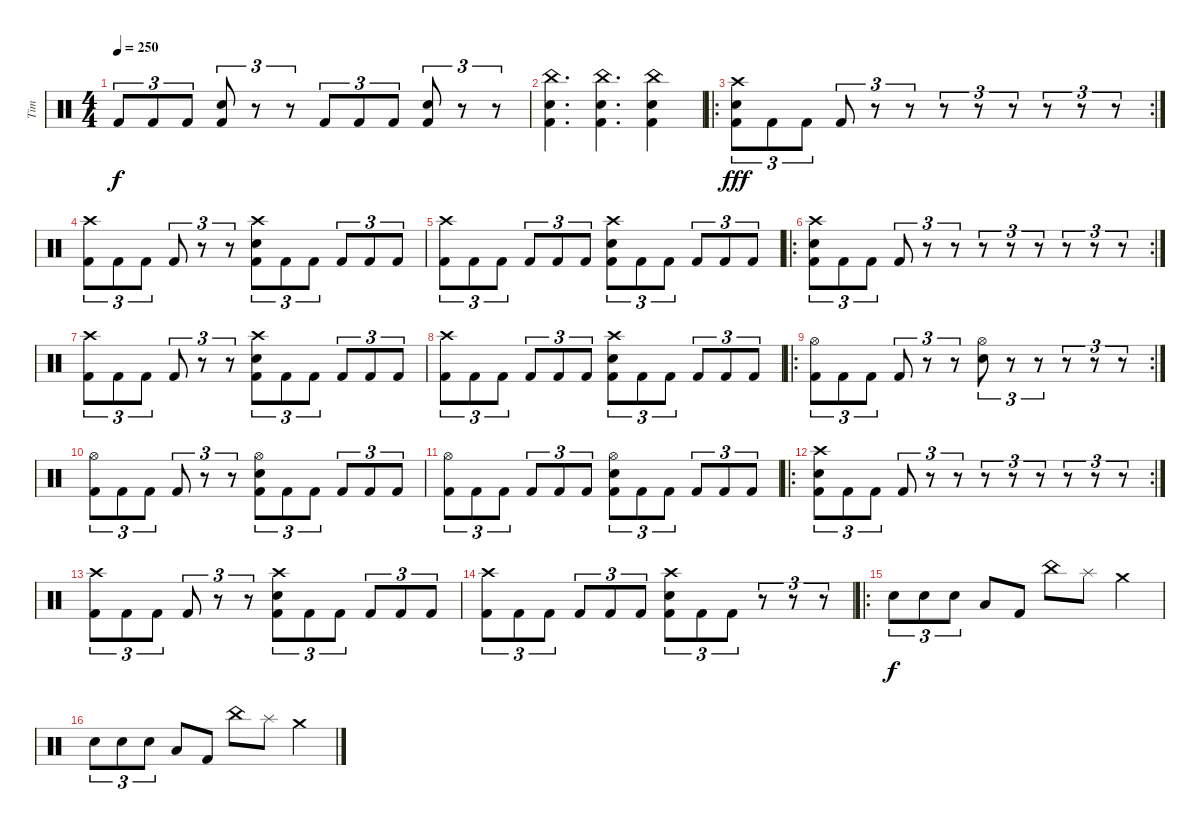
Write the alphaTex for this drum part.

\track ("Tim" "Tim") {instrument percussion}
\staff {score}
\articulation defaults
\ts (4 4)
\tempo 250
\clef neutral
\ks c "Kick (hit) 2".8{tu (3 2) dy f} "Kick (hit) 2".8{tu (3 2)} "Kick (hit) 2".8{tu (3 2)}
("Electric Snare (hit)" "Kick (hit) 2").8{tu (3 2)} r.8{tu (3 2)} r.8{tu (3 2)} "Kick (hit) 2".8{tu (3 2)} "Kick (hit) 2".8{tu (3 2)} "Kick (hit) 2".8{tu (3 2)} ("Electric Snare (hit)" "Kick (hit) 2").8{tu (3 2)} r.8{tu (3 2)} r.8{tu (3 2)} |
("China (hit)" "Electric Snare (hit)" "Kick (hit) 2").4{d} ("China (hit)" "Electric Snare (hit)" "Kick (hit) 2").4{d} ("China (hit)" "Electric Snare (hit)" "Kick (hit) 2").4 |
\ro
\rc 2
("Crash high (hit)" "Electric Snare (hit)" "Kick (hit) 2").8{tu (3 2) dy fff} "Kick (hit) 2".8{tu (3 2)} "Kick (hit) 2".8{tu (3 2)} "Kick (hit) 2".8{tu (3 2)} r.8{tu (3 2)} r.8{tu (3 2)} r.8{tu (3 2)} r.8{tu (3 2)} r.8{tu (3 2)} r.8{tu (3 2)} r.8{tu (3 2)} r.8{tu (3 2)} |
("Crash high (hit)" "Kick (hit) 2").8{tu (3 2)} "Kick (hit) 2".8{tu (3 2)} "Kick (hit) 2".8{tu (3 2)} "Kick (hit) 2".8{tu (3 2)} r.8{tu (3 2)} r.8{tu (3 2)} ("Crash high (hit)" "Electric Snare (hit)" "Kick (hit) 2").8{tu (3 2)} "Kick (hit) 2".8{tu (3 2)} "Kick (hit) 2".8{tu (3 2)} "Kick (hit) 2".8{tu (3 2)} "Kick (hit) 2".8{tu (3 2)} "Kick (hit) 2".8{tu (3 2)} |
("Crash high (hit)" "Kick (hit) 2").8{tu (3 2)} "Kick (hit) 2".8{tu (3 2)} "Kick (hit) 2".8{tu (3 2)} "Kick (hit) 2".8{tu (3 2)} "Kick (hit) 2".8{tu (3 2)} "Kick (hit) 2".8{tu (3 2)} ("Crash high (hit)" "Electric Snare (hit)" "Kick (hit) 2").8{tu (3 2)} "Kick (hit) 2".8{tu (3 2)} "Kick (hit) 2".8{tu (3 2)} "Kick (hit) 2".8{tu (3 2)} "Kick (hit) 2".8{tu (3 2)} "Kick (hit) 2".8{tu (3 2)} |
\ro
\rc 2
("Crash high (hit)" "Electric Snare (hit)" "Kick (hit) 2").8{tu (3 2)} "Kick (hit) 2".8{tu (3 2)} "Kick (hit) 2".8{tu (3 2)} "Kick (hit) 2".8{tu (3 2)} r.8{tu (3 2)} r.8{tu (3 2)} r.8{tu (3 2)} r.8{tu (3 2)} r.8{tu (3 2)} r.8{tu (3 2)} r.8{tu (3 2)} r.8{tu (3 2)} |
("Crash high (hit)" "Kick (hit) 2").8{tu (3 2)} "Kick (hit) 2".8{tu (3 2)} "Kick (hit) 2".8{tu (3 2)} "Kick (hit) 2".8{tu (3 2)} r.8{tu (3 2)} r.8{tu (3 2)} ("Crash high (hit)" "Electric Snare (hit)" "Kick (hit) 2").8{tu (3 2)} "Kick (hit) 2".8{tu (3 2)} "Kick (hit) 2".8{tu (3 2)} "Kick (hit) 2".8{tu (3 2)} "Kick (hit) 2".8{tu (3 2)} "Kick (hit) 2".8{tu (3 2)} |
("Crash high (hit)" "Kick (hit) 2").8{tu (3 2)} "Kick (hit) 2".8{tu (3 2)} "Kick (hit) 2".8{tu (3 2)} "Kick (hit) 2".8{tu (3 2)} "Kick (hit) 2".8{tu (3 2)} "Kick (hit) 2".8{tu (3 2)} ("Crash high (hit)" "Electric Snare (hit)" "Kick (hit) 2").8{tu (3 2)} "Kick (hit) 2".8{tu (3 2)} "Kick (hit) 2".8{tu (3 2)} "Kick (hit) 2".8{tu (3 2)} "Kick (hit) 2".8{tu (3 2)} "Kick (hit) 2".8{tu (3 2)} |
\ro
\rc 2
("Hi-Hat (open)" "Kick (hit) 2").8{tu (3 2)} "Kick (hit) 2".8{tu (3 2)} "Kick (hit) 2".8{tu (3 2)} "Kick (hit) 2".8{tu (3 2)} r.8{tu (3 2)} r.8{tu (3 2)} ("Hi-Hat (open)" "Electric Snare (hit)").8{tu (3 2)} r.8{tu (3 2)} r.8{tu (3 2)} r.8{tu (3 2)} r.8{tu (3 2)} r.8{tu (3 2)} |
("Hi-Hat (open)" "Kick (hit) 2").8{tu (3 2)} "Kick (hit) 2".8{tu (3 2)} "Kick (hit) 2".8{tu (3 2)} "Kick (hit) 2".8{tu (3 2)} r.8{tu (3 2)} r.8{tu (3 2)} ("Hi-Hat (open)" "Electric Snare (hit)" "Kick (hit) 2").8{tu (3 2)} "Kick (hit) 2".8{tu (3 2)} "Kick (hit) 2".8{tu (3 2)} "Kick (hit) 2".8{tu (3 2)} "Kick (hit) 2".8{tu (3 2)} "Kick (hit) 2".8{tu (3 2)} |
("Hi-Hat (open)" "Kick (hit) 2").8{tu (3 2)} "Kick (hit) 2".8{tu (3 2)} "Kick (hit) 2".8{tu (3 2)} "Kick (hit) 2".8{tu (3 2)} "Kick (hit) 2".8{tu (3 2)} "Kick (hit) 2".8{tu (3 2)} ("Hi-Hat (open)" "Electric Snare (hit)" "Kick (hit) 2").8{tu (3 2)} "Kick (hit) 2".8{tu (3 2)} "Kick (hit) 2".8{tu (3 2)} "Kick (hit) 2".8{tu (3 2)} "Kick (hit) 2".8{tu (3 2)} "Kick (hit) 2".8{tu (3 2)} |
\ro
\rc 2
("Crash high (hit)" "Electric Snare (hit)" "Kick (hit) 2").8{tu (3 2)} "Kick (hit) 2".8{tu (3 2)} "Kick (hit) 2".8{tu (3 2)} "Kick (hit) 2".8{tu (3 2)} r.8{tu (3 2)} r.8{tu (3 2)} r.8{tu (3 2)} r.8{tu (3 2)} r.8{tu (3 2)} r.8{tu (3 2)} r.8{tu (3 2)} r.8{tu (3 2)} |
("Crash high (hit)" "Kick (hit) 2").8{tu (3 2)} "Kick (hit) 2".8{tu (3 2)} "Kick (hit) 2".8{tu (3 2)} "Kick (hit) 2".8{tu (3 2)} r.8{tu (3 2)} r.8{tu (3 2)} ("Crash high (hit)" "Electric Snare (hit)" "Kick (hit) 2").8{tu (3 2)} "Kick (hit) 2".8{tu (3 2)} "Kick (hit) 2".8{tu (3 2)} "Kick (hit) 2".8{tu (3 2)} "Kick (hit) 2".8{tu (3 2)} "Kick (hit) 2".8{tu (3 2)} |
("Crash high (hit)" "Kick (hit) 2").8{tu (3 2)} "Kick (hit) 2".8{tu (3 2)} "Kick (hit) 2".8{tu (3 2)} "Kick (hit) 2".8{tu (3 2)} "Kick (hit) 2".8{tu (3 2)} "Kick (hit) 2".8{tu (3 2)} ("Crash high (hit)" "Electric Snare (hit)" "Kick (hit) 2").8{tu (3 2)} "Kick (hit) 2".8{tu (3 2)} "Kick (hit) 2".8{tu (3 2)} r.8{tu (3 2)} r.8{tu (3 2)} r.8{tu (3 2)} |
\ro "Electric Snare (hit)".8{tu (3 2) dy f} "Electric Snare (hit)".8{tu (3 2)} "Electric Snare (hit)".8{tu (3 2)} "Low Tom (hit)".8 "Kick (hit) 2".8 "China (hit)".8 "Splash (hit)".8 "Crash medium (hit)".4
|
"Electric Snare (hit)".8{tu (3 2)} "Electric Snare (hit)".8{tu (3 2)} "Electric Snare (hit)".8{tu (3 2)} "Low Tom (hit)".8 "Kick (hit) 2".8 "China (hit)".8 "Splash (hit)".8 "Crash medium (hit)".4
